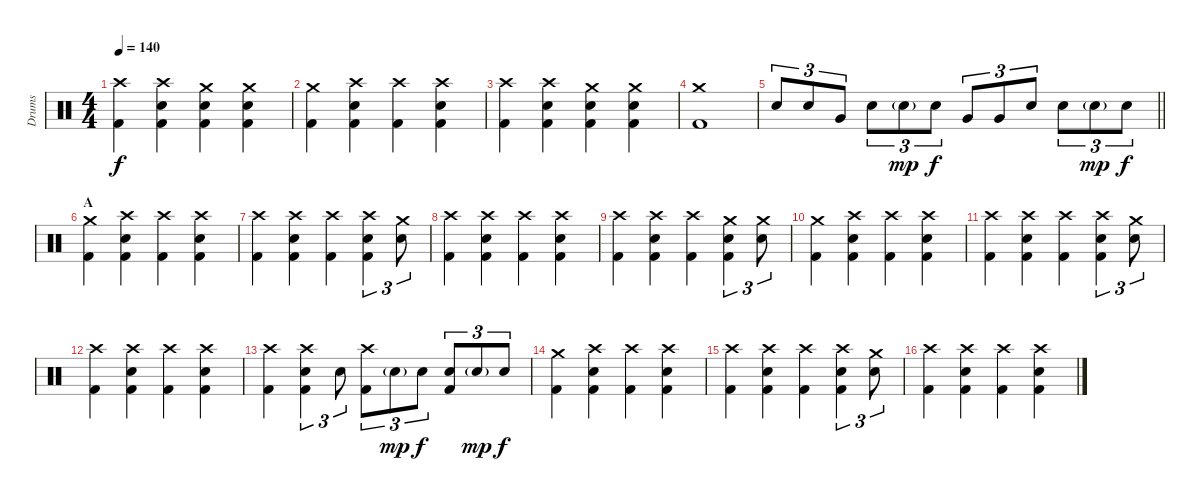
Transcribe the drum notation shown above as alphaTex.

\track ("Drums" "Drums") {instrument percussion}
\staff {score}
\articulation defaults
\ts (4 4)
\tempo 140
\clef neutral
\ks c
("Crash high (hit)" "Kick (hit) 2").4{dy f} ("Crash high (hit)" "Electric Snare (hit)" "Kick (hit) 2").4 ("Crash medium (hit)" "Electric Snare (hit)" "Kick (hit) 2").4 ("Crash medium (hit)" "Electric Snare (hit)" "Kick (hit) 2").4 |
("Kick (hit) 2" "Crash medium (hit)").4 ("Crash high (hit)" "Electric Snare (hit)" "Kick (hit) 2").4 ("Crash high (hit)" "Kick (hit) 2").4 ("Crash high (hit)" "Electric Snare (hit)" "Kick (hit) 2").4 |
("Crash high (hit)" "Kick (hit) 2").4 ("Crash high (hit)" "Electric Snare (hit)" "Kick (hit) 2").4 ("Crash medium (hit)" "Electric Snare (hit)" "Kick (hit) 2").4 ("Crash medium (hit)" "Electric Snare (hit)" "Kick (hit) 2").4 |
("Crash medium (hit)" "Kick (hit) 2").1 |
\barLineRight lightlight "Electric Snare (hit)".8{tu (3 2)} "Electric Snare (hit)".8{tu (3 2)} "Very Low Tom (hit)".8{tu (3 2)} "Electric Snare (hit)".8{tu (3 2)} "Electric Snare (hit)"{g}.8{tu (3 2) dy mp} "Electric Snare (hit)".8{tu (3 2) dy f} "Very Low Tom (hit)".8{tu (3 2)} "Very Low Tom (hit)".8{tu (3 2)} "Electric Snare (hit)".8{tu (3 2)} "Electric Snare (hit)".8{tu (3 2)} "Electric Snare (hit)"{g}.8{tu (3 2) dy mp} "Electric Snare (hit)".8{tu (3 2) dy f}
|
\section ("" "A")
("Kick (hit) 2" "Crash medium (hit)").4 ("Crash high (hit)" "Electric Snare (hit)" "Kick (hit) 2").4 ("Crash high (hit)" "Kick (hit) 2").4 ("Crash high (hit)" "Electric Snare (hit)" "Kick (hit) 2").4 |
("Crash high (hit)" "Kick (hit) 2").4 ("Crash high (hit)" "Electric Snare (hit)" "Kick (hit) 2").4 ("Crash high (hit)" "Kick (hit) 2").4 ("Crash high (hit)" "Electric Snare (hit)" "Kick (hit) 2").4{tu (3 2)} ("Electric Snare (hit)" "Crash medium (hit)").8{tu (3 2)} |
("Crash high (hit)" "Kick (hit) 2").4 ("Crash high (hit)" "Electric Snare (hit)" "Kick (hit) 2").4 ("Crash high (hit)" "Kick (hit) 2").4 ("Crash high (hit)" "Electric Snare (hit)" "Kick (hit) 2").4 |
("Crash high (hit)" "Kick (hit) 2").4 ("Crash high (hit)" "Electric Snare (hit)" "Kick (hit) 2").4 ("Crash high (hit)" "Kick (hit) 2").4 ("Crash medium (hit)" "Electric Snare (hit)" "Kick (hit) 2").4{tu (3 2)} ("Electric Snare (hit)" "Crash medium (hit)").8{tu (3 2)} |
("Kick (hit) 2" "Crash medium (hit)").4 ("Crash high (hit)" "Electric Snare (hit)" "Kick (hit) 2").4 ("Crash high (hit)" "Kick (hit) 2").4 ("Crash high (hit)" "Electric Snare (hit)" "Kick (hit) 2").4 |
("Crash high (hit)" "Kick (hit) 2").4 ("Crash high (hit)" "Electric Snare (hit)" "Kick (hit) 2").4 ("Crash high (hit)" "Kick (hit) 2").4 ("Crash high (hit)" "Electric Snare (hit)" "Kick (hit) 2").4{tu (3 2)} ("Electric Snare (hit)" "Crash medium (hit)").8{tu (3 2)} |
("Crash high (hit)" "Kick (hit) 2").4 ("Crash high (hit)" "Electric Snare (hit)" "Kick (hit) 2").4 ("Crash high (hit)" "Kick (hit) 2").4 ("Crash high (hit)" "Electric Snare (hit)" "Kick (hit) 2").4 |
("Crash high (hit)" "Kick (hit) 2").4 ("Crash high (hit)" "Electric Snare (hit)" "Kick (hit) 2").4{tu (3 2)} "Electric Snare (hit)".8{tu (3 2)} ("Crash high (hit)" "Kick (hit) 2").8{tu (3 2)} "Electric Snare (hit)"{g}.8{tu (3 2) dy mp} "Electric Snare (hit)".8{tu (3 2) dy f} ("Electric Snare (hit)" "Kick (hit) 2").8{tu (3 2)} "Electric Snare (hit)"{g}.8{tu (3 2) dy mp} "Electric Snare (hit)".8{tu (3 2) dy f} |
("Kick (hit) 2" "Crash medium (hit)").4 ("Crash high (hit)" "Electric Snare (hit)" "Kick (hit) 2").4 ("Crash high (hit)" "Kick (hit) 2").4 ("Crash high (hit)" "Electric Snare (hit)" "Kick (hit) 2").4 |
("Crash high (hit)" "Kick (hit) 2").4 ("Crash high (hit)" "Electric Snare (hit)" "Kick (hit) 2").4 ("Crash high (hit)" "Kick (hit) 2").4 ("Crash high (hit)" "Electric Snare (hit)" "Kick (hit) 2").4{tu (3 2)} ("Electric Snare (hit)" "Crash medium (hit)").8{tu (3 2)} |
("Crash high (hit)" "Kick (hit) 2").4 ("Crash high (hit)" "Electric Snare (hit)" "Kick (hit) 2").4 ("Crash high (hit)" "Kick (hit) 2").4 ("Crash high (hit)" "Electric Snare (hit)" "Kick (hit) 2").4
